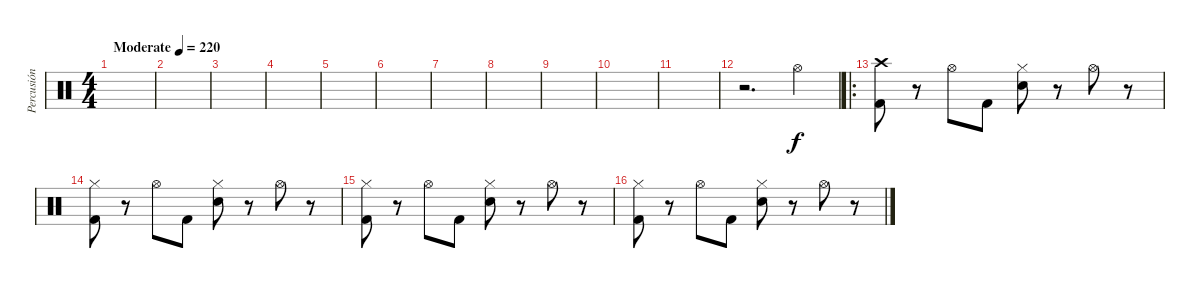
\track ("Percusión" "Percusión") {instrument percussion}
\staff {score}
\articulation defaults
\ts (4 4)
\tempo (220 "Moderate")
\clef neutral
\ks c
|
|
|
|
|
|
|
|
|
|
|
r.2{d} "Hi-Hat (open)".4 |
\ro
("Crash high (hit)" "Kick (hit) 2").8 r.8 "Hi-Hat (open)".8 "Kick (hit) 2".8 ("Hi-Hat (closed)" "Snare (hit) 2").8 r.8 "Hi-Hat (open)".8 r.8 |
("Hi-Hat (closed)" "Kick (hit) 2").8 r.8 "Hi-Hat (open)".8 "Kick (hit) 2".8 ("Hi-Hat (closed)" "Snare (hit) 2").8 r.8 "Hi-Hat (open)".8 r.8 |
("Hi-Hat (closed)" "Kick (hit) 2").8 r.8 "Hi-Hat (open)".8 "Kick (hit) 2".8 ("Hi-Hat (closed)" "Snare (hit) 2").8 r.8 "Hi-Hat (open)".8 r.8 |
("Hi-Hat (closed)" "Kick (hit) 2").8 r.8 "Hi-Hat (open)".8 "Kick (hit) 2".8 ("Hi-Hat (closed)" "Snare (hit) 2").8 r.8 "Hi-Hat (open)".8 r.8
